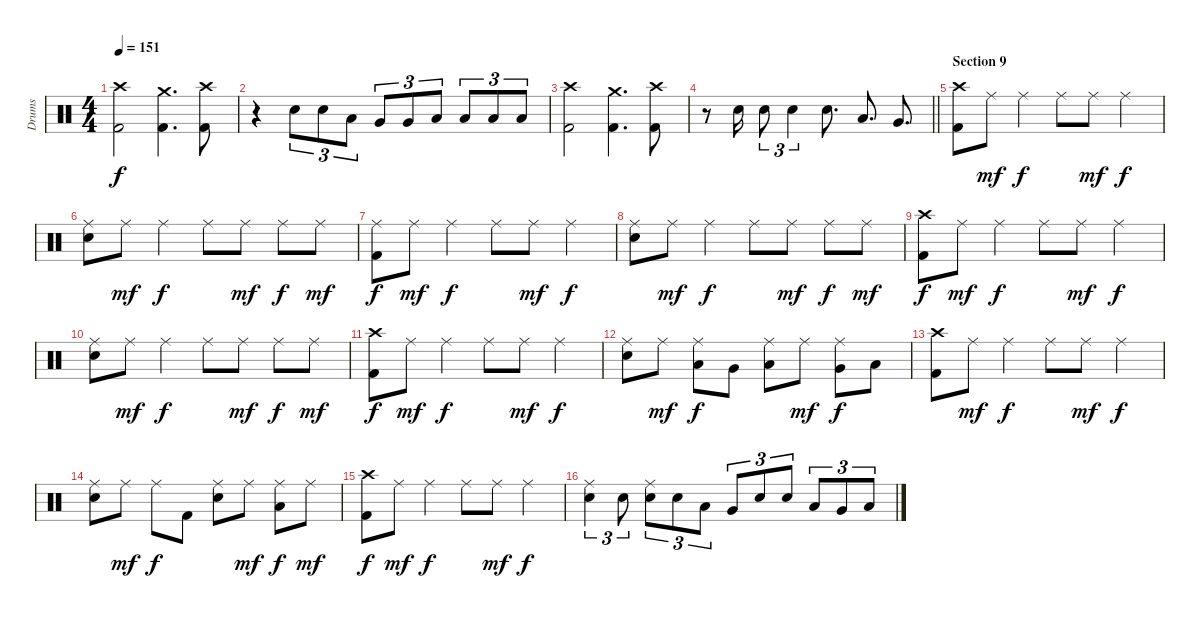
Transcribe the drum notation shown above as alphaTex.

\track ("Drums" "Drums") {instrument percussion}
\staff {score}
\articulation defaults
\ts (4 4)
\tempo 151
\clef neutral
\ks c
("Crash high (hit)" "Kick (hit) 2").2{dy f} ("Crash medium (hit)" "Kick (hit) 2").4{d} ("Crash high (hit)" "Kick (hit) 2").8 |
r.4 "Snare (hit) 2".8{tu (3 2)} "Snare (hit) 2".8{tu (3 2)} "Low Tom (hit)".8{tu (3 2)} "Very Low Tom (hit)".8{tu (3 2)} "Very Low Tom (hit)".8{tu (3 2)} "Low Floor Tom (hit)".8{tu (3 2)} "Low Floor Tom (hit)".8{tu (3 2)} "Low Floor Tom (hit)".8{tu (3 2)} "Low Floor Tom (hit)".8{tu (3 2)} |
("Crash high (hit)" "Kick (hit) 2").2 ("Crash medium (hit)" "Kick (hit) 2").4{d} ("Crash high (hit)" "Kick (hit) 2").8 |
\barLineRight lightlight
r.8 "Snare (hit) 2".16 "Snare (hit) 2".8{tu (3 2)} "Snare (hit) 2".4{tu (3 2)} "Snare (hit) 2".8{d} "Low Tom (hit)".8{d} "Very Low Tom (hit)".8{d} |
\section ("" "Section 9")
("Crash high (hit)" "Kick (hit) 2").8 "Ride (middle)".8{dy mf} "Ride (middle)".4{dy f} "Ride (middle)".8 "Ride (middle)".8{dy mf} "Ride (middle)".4{dy f} |
("Ride (middle)" "Snare (hit) 2").8 "Ride (middle)".8{dy mf} "Ride (middle)".4{dy f} "Ride (middle)".8 "Ride (middle)".8{dy mf} "Ride (middle)".8{dy f} "Ride (middle)".8{dy mf} |
("Ride (middle)" "Kick (hit) 2").8{dy f} "Ride (middle)".8{dy mf} "Ride (middle)".4{dy f} "Ride (middle)".8 "Ride (middle)".8{dy mf} "Ride (middle)".4{dy f} |
("Ride (middle)" "Snare (hit) 2").8 "Ride (middle)".8{dy mf} "Ride (middle)".4{dy f} "Ride (middle)".8 "Ride (middle)".8{dy mf} "Ride (middle)".8{dy f} "Ride (middle)".8{dy mf} |
("Crash high (hit)" "Kick (hit) 2").8{dy f} "Ride (middle)".8{dy mf} "Ride (middle)".4{dy f} "Ride (middle)".8 "Ride (middle)".8{dy mf} "Ride (middle)".4{dy f} |
("Ride (middle)" "Snare (hit) 2").8 "Ride (middle)".8{dy mf} "Ride (middle)".4{dy f} "Ride (middle)".8 "Ride (middle)".8{dy mf} "Ride (middle)".8{dy f} "Ride (middle)".8{dy mf} |
("Crash high (hit)" "Kick (hit) 2").8{dy f} "Ride (middle)".8{dy mf} "Ride (middle)".4{dy f} "Ride (middle)".8 "Ride (middle)".8{dy mf} "Ride (middle)".4{dy f} |
("Ride (middle)" "Snare (hit) 2").8 "Ride (middle)".8{dy mf} ("Ride (middle)" "Low Tom (hit)").8{dy f} "Very Low Tom (hit)".8 ("Ride (middle)" "Low Floor Tom (hit)").8 "Ride (middle)".8{dy mf} ("Ride (middle)" "Very Low Tom (hit)").8{dy f} "Low Floor Tom (hit)".8 |
("Crash high (hit)" "Kick (hit) 2").8 "Ride (middle)".8{dy mf} "Ride (middle)".4{dy f} "Ride (middle)".8 "Ride (middle)".8{dy mf} "Ride (middle)".4{dy f} |
("Ride (middle)" "Snare (hit) 2").8 "Ride (middle)".8{dy mf} "Ride (middle)".8{dy f} "Kick (hit) 2".8 ("Ride (middle)" "Snare (hit) 2").8 "Ride (middle)".8{dy mf} ("Ride (middle)" "Low Tom (hit)").8{dy f} "Ride (middle)".8{dy mf} |
("Crash high (hit)" "Kick (hit) 2").8{dy f} "Ride (middle)".8{dy mf} "Ride (middle)".4{dy f} "Ride (middle)".8 "Ride (middle)".8{dy mf} "Ride (middle)".4{dy f} |
("Ride (middle)" "Snare (hit) 2").4{tu (3 2)} "Snare (hit) 2".8{tu (3 2)} ("Ride (middle)" "Snare (hit) 2").8{tu (3 2)} "Snare (hit) 2".8{tu (3 2)} "Low Tom (hit)".8{tu (3 2)} "Very Low Tom (hit)".8{tu (3 2)} "Snare (hit) 2".8{tu (3 2)} "Snare (hit) 2".8{tu (3 2)} "Low Tom (hit)".8{tu (3 2)} "Very Low Tom (hit)".8{tu (3 2)} "Low Floor Tom (hit)".8{tu (3 2)}
